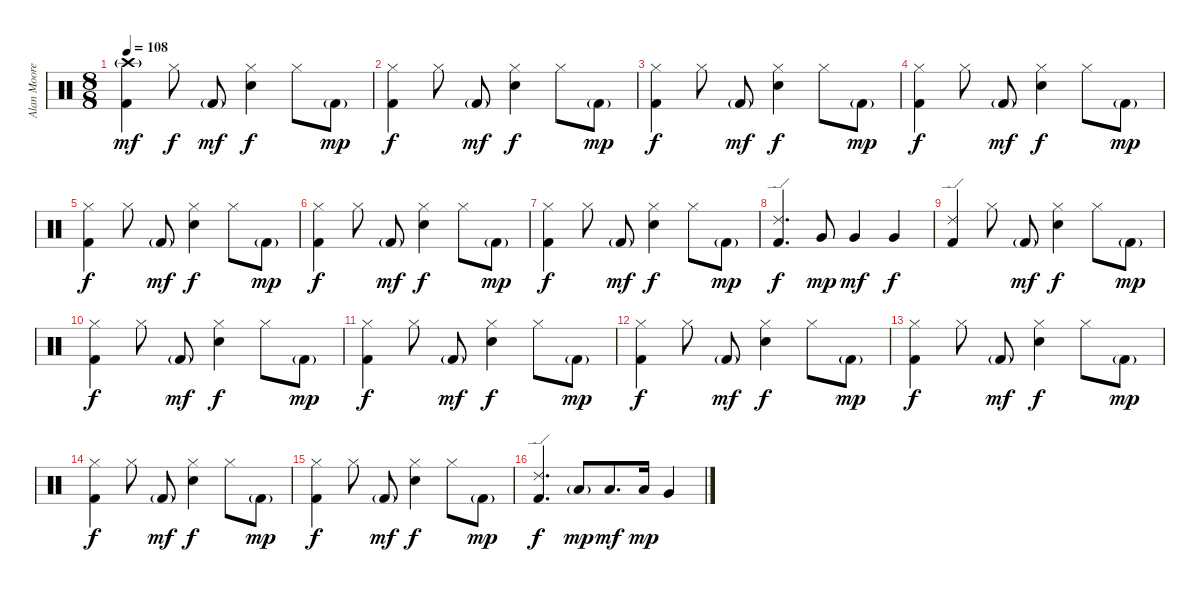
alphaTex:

\track ("Alan Moore" "Alan Moore") {instrument percussion}
\staff {score}
\articulation defaults
\ts (8 8)
\tempo 108
\clef neutral
\ks c
("Crash high (hit)"{g} "Kick (hit) 2").4{dy mf} "Hi-Hat (closed)".8{dy f} "Kick (hit) 2"{g}.8{dy mf} ("Hi-Hat (closed)" "Snare (hit) 2").4{dy f} "Hi-Hat (closed)".8 "Kick (hit) 2"{g}.8{dy mp} |
("Hi-Hat (closed)" "Kick (hit) 2").4{dy f} "Hi-Hat (closed)".8 "Kick (hit) 2"{g}.8{dy mf} ("Hi-Hat (closed)" "Snare (hit) 2").4{dy f} "Hi-Hat (closed)".8 "Kick (hit) 2"{g}.8{dy mp} |
("Hi-Hat (closed)" "Kick (hit) 2").4{dy f} "Hi-Hat (closed)".8 "Kick (hit) 2"{g}.8{dy mf} ("Hi-Hat (closed)" "Snare (hit) 2").4{dy f} "Hi-Hat (closed)".8 "Kick (hit) 2"{g}.8{dy mp} |
("Hi-Hat (closed)" "Kick (hit) 2").4{dy f} "Hi-Hat (closed)".8 "Kick (hit) 2"{g}.8{dy mf} ("Hi-Hat (closed)" "Snare (hit) 2").4{dy f} "Hi-Hat (closed)".8 "Kick (hit) 2"{g}.8{dy mp} |
("Hi-Hat (closed)" "Kick (hit) 2").4{dy f} "Hi-Hat (closed)".8 "Kick (hit) 2"{g}.8{dy mf} ("Hi-Hat (closed)" "Snare (hit) 2").4{dy f} "Hi-Hat (closed)".8 "Kick (hit) 2"{g}.8{dy mp} |
("Hi-Hat (closed)" "Kick (hit) 2").4{dy f} "Hi-Hat (closed)".8 "Kick (hit) 2"{g}.8{dy mf} ("Hi-Hat (closed)" "Snare (hit) 2").4{dy f} "Hi-Hat (closed)".8 "Kick (hit) 2"{g}.8{dy mp} |
("Hi-Hat (closed)" "Kick (hit) 2").4{dy f} "Hi-Hat (closed)".8 "Kick (hit) 2"{g}.8{dy mf} ("Hi-Hat (closed)" "Snare (hit) 2").4{dy f} "Hi-Hat (closed)".8 "Kick (hit) 2"{g}.8{dy mp} |
("Ride (edge) 2" "Kick (hit) 2").4{d dy f} "Very Low Tom (hit)".8{dy mp} "Very Low Tom (hit)".4{dy mf} "Very Low Tom (hit)".4{dy f} |
("Ride (edge) 2" "Kick (hit) 2").4 "Hi-Hat (closed)".8 "Kick (hit) 2"{g}.8{dy mf} ("Hi-Hat (closed)" "Snare (hit) 2").4{dy f} "Hi-Hat (closed)".8 "Kick (hit) 2"{g}.8{dy mp} |
("Hi-Hat (closed)" "Kick (hit) 2").4{dy f} "Hi-Hat (closed)".8 "Kick (hit) 2"{g}.8{dy mf} ("Hi-Hat (closed)" "Snare (hit) 2").4{dy f} "Hi-Hat (closed)".8 "Kick (hit) 2"{g}.8{dy mp} |
("Hi-Hat (closed)" "Kick (hit) 2").4{dy f} "Hi-Hat (closed)".8 "Kick (hit) 2"{g}.8{dy mf} ("Hi-Hat (closed)" "Snare (hit) 2").4{dy f} "Hi-Hat (closed)".8 "Kick (hit) 2"{g}.8{dy mp} |
("Hi-Hat (closed)" "Kick (hit) 2").4{dy f} "Hi-Hat (closed)".8 "Kick (hit) 2"{g}.8{dy mf} ("Hi-Hat (closed)" "Snare (hit) 2").4{dy f} "Hi-Hat (closed)".8 "Kick (hit) 2"{g}.8{dy mp} |
("Hi-Hat (closed)" "Kick (hit) 2").4{dy f} "Hi-Hat (closed)".8 "Kick (hit) 2"{g}.8{dy mf} ("Hi-Hat (closed)" "Snare (hit) 2").4{dy f} "Hi-Hat (closed)".8 "Kick (hit) 2"{g}.8{dy mp} |
("Hi-Hat (closed)" "Kick (hit) 2").4{dy f} "Hi-Hat (closed)".8 "Kick (hit) 2"{g}.8{dy mf} ("Hi-Hat (closed)" "Snare (hit) 2").4{dy f} "Hi-Hat (closed)".8 "Kick (hit) 2"{g}.8{dy mp} |
("Hi-Hat (closed)" "Kick (hit) 2").4{dy f} "Hi-Hat (closed)".8 "Kick (hit) 2"{g}.8{dy mf} ("Hi-Hat (closed)" "Snare (hit) 2").4{dy f} "Hi-Hat (closed)".8 "Kick (hit) 2"{g}.8{dy mp} |
("Ride (edge) 2" "Kick (hit) 2").4{d dy f} "Low Tom (hit)"{g}.8{dy mp} "Low Tom (hit)".8{d dy mf} "Low Tom (hit)".16{dy mp} "Very Low Tom (hit)".4
